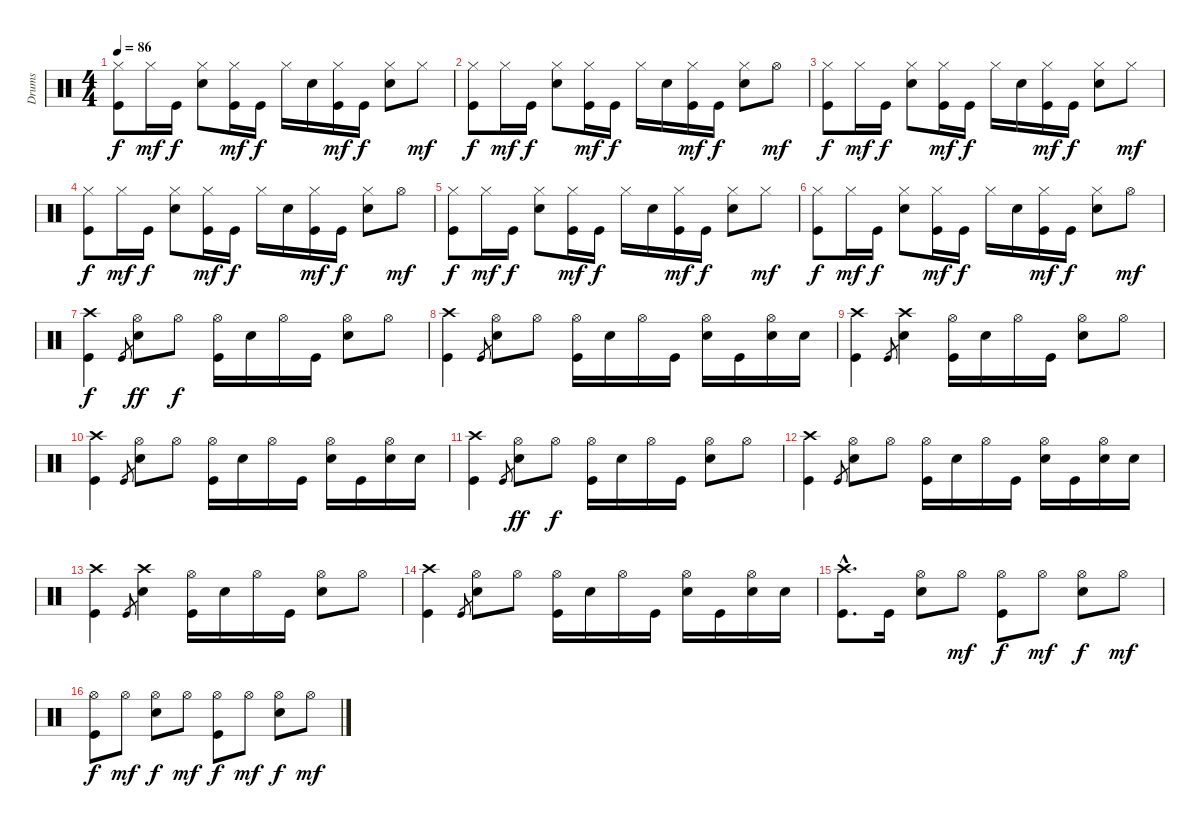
\track ("Drums" "Drums") {instrument percussion}
\staff {score}
\articulation defaults
\ts (4 4)
\tempo 86
\clef neutral
\ks c
("Hi-Hat (closed)" "Kick (hit)").8{dy f} "Hi-Hat (closed)".16{dy mf} "Kick (hit)".16{dy f} ("Hi-Hat (closed)" "Snare (hit) 2").8 ("Hi-Hat (closed)" "Kick (hit)").16{dy mf} "Kick (hit)".16{dy f} "Hi-Hat (closed)".16 "Snare (hit) 2".16 ("Hi-Hat (closed)" "Kick (hit)").16{dy mf} "Kick (hit)".16{dy f} ("Hi-Hat (closed)" "Snare (hit) 2").8 "Hi-Hat (closed)".8{dy mf} |
("Hi-Hat (closed)" "Kick (hit)").8{dy f} "Hi-Hat (closed)".16{dy mf} "Kick (hit)".16{dy f} ("Hi-Hat (closed)" "Snare (hit) 2").8 ("Hi-Hat (closed)" "Kick (hit)").16{dy mf} "Kick (hit)".16{dy f} "Hi-Hat (closed)".16 "Snare (hit) 2".16 ("Hi-Hat (closed)" "Kick (hit)").16{dy mf} "Kick (hit)".16{dy f} ("Hi-Hat (closed)" "Snare (hit) 2").8 "Hi-Hat (open)".8{dy mf} |
("Hi-Hat (closed)" "Kick (hit)").8{dy f} "Hi-Hat (closed)".16{dy mf} "Kick (hit)".16{dy f} ("Hi-Hat (closed)" "Snare (hit) 2").8 ("Hi-Hat (closed)" "Kick (hit)").16{dy mf} "Kick (hit)".16{dy f} "Hi-Hat (closed)".16 "Snare (hit) 2".16 ("Hi-Hat (closed)" "Kick (hit)").16{dy mf} "Kick (hit)".16{dy f} ("Hi-Hat (closed)" "Snare (hit) 2").8 "Hi-Hat (closed)".8{dy mf} |
("Hi-Hat (closed)" "Kick (hit)").8{dy f} "Hi-Hat (closed)".16{dy mf} "Kick (hit)".16{dy f} ("Hi-Hat (closed)" "Snare (hit) 2").8 ("Hi-Hat (closed)" "Kick (hit)").16{dy mf} "Kick (hit)".16{dy f} "Hi-Hat (closed)".16 "Snare (hit) 2".16 ("Hi-Hat (closed)" "Kick (hit)").16{dy mf} "Kick (hit)".16{dy f} ("Hi-Hat (closed)" "Snare (hit) 2").8 "Hi-Hat (open)".8{dy mf} |
("Hi-Hat (closed)" "Kick (hit)").8{dy f} "Hi-Hat (closed)".16{dy mf} "Kick (hit)".16{dy f} ("Hi-Hat (closed)" "Snare (hit) 2").8 ("Hi-Hat (closed)" "Kick (hit)").16{dy mf} "Kick (hit)".16{dy f} "Hi-Hat (closed)".16 "Snare (hit) 2".16 ("Hi-Hat (closed)" "Kick (hit)").16{dy mf} "Kick (hit)".16{dy f} ("Hi-Hat (closed)" "Snare (hit) 2").8 "Hi-Hat (closed)".8{dy mf} |
("Hi-Hat (closed)" "Kick (hit)").8{dy f} "Hi-Hat (closed)".16{dy mf} "Kick (hit)".16{dy f} ("Hi-Hat (closed)" "Snare (hit) 2").8 ("Hi-Hat (closed)" "Kick (hit)").16{dy mf} "Kick (hit)".16{dy f} "Hi-Hat (closed)".16 "Snare (hit) 2".16 ("Hi-Hat (closed)" "Kick (hit)").16{dy mf} "Kick (hit)".16{dy f} ("Hi-Hat (closed)" "Snare (hit) 2").8 "Hi-Hat (open)".8{dy mf} |
("Crash high (hit)" "Kick (hit)").4{dy f} "Kick (hit)".8{gr} ("Hi-Hat (open)" "Snare (hit) 2").8{dy ff} "Hi-Hat (open)".8{dy f} ("Hi-Hat (open)" "Kick (hit)").16 "Snare (hit) 2".16 "Hi-Hat (open)".16 "Kick (hit)".16 ("Hi-Hat (open)" "Snare (hit) 2").8 "Hi-Hat (open)".8 |
("Crash high (hit)" "Kick (hit)").4 "Kick (hit)".8{gr} ("Hi-Hat (open)" "Snare (hit) 2").8 "Hi-Hat (open)".8 ("Hi-Hat (open)" "Kick (hit)").16 "Snare (hit) 2".16 "Hi-Hat (open)".16 "Kick (hit)".16 ("Hi-Hat (open)" "Snare (hit) 2").16 "Kick (hit)".16 ("Hi-Hat (open)" "Snare (hit) 2").16 "Snare (hit) 2".16 |
("Crash high (hit)" "Kick (hit)").4 "Kick (hit)".8{gr} ("Crash high (hit)" "Snare (hit) 2").4 ("Hi-Hat (open)" "Kick (hit)").16 "Snare (hit) 2".16 "Hi-Hat (open)".16 "Kick (hit)".16 ("Hi-Hat (open)" "Snare (hit) 2").8 "Hi-Hat (open)".8 |
("Crash high (hit)" "Kick (hit)").4 "Kick (hit)".8{gr} ("Hi-Hat (open)" "Snare (hit) 2").8 "Hi-Hat (open)".8 ("Hi-Hat (open)" "Kick (hit)").16 "Snare (hit) 2".16 "Hi-Hat (open)".16 "Kick (hit)".16 ("Hi-Hat (open)" "Snare (hit) 2").16 "Kick (hit)".16 ("Hi-Hat (open)" "Snare (hit) 2").16 "Snare (hit) 2".16 |
("Crash high (hit)" "Kick (hit)").4 "Kick (hit)".8{gr} ("Hi-Hat (open)" "Snare (hit) 2").8{dy ff} "Hi-Hat (open)".8{dy f} ("Hi-Hat (open)" "Kick (hit)").16 "Snare (hit) 2".16 "Hi-Hat (open)".16 "Kick (hit)".16 ("Hi-Hat (open)" "Snare (hit) 2").8 "Hi-Hat (open)".8 |
("Crash high (hit)" "Kick (hit)").4 "Kick (hit)".8{gr} ("Hi-Hat (open)" "Snare (hit) 2").8 "Hi-Hat (open)".8 ("Hi-Hat (open)" "Kick (hit)").16 "Snare (hit) 2".16 "Hi-Hat (open)".16 "Kick (hit)".16 ("Hi-Hat (open)" "Snare (hit) 2").16 "Kick (hit)".16 ("Hi-Hat (open)" "Snare (hit) 2").16 "Snare (hit) 2".16 |
("Crash high (hit)" "Kick (hit)").4 "Kick (hit)".8{gr} ("Crash high (hit)" "Snare (hit) 2").4 ("Hi-Hat (open)" "Kick (hit)").16 "Snare (hit) 2".16 "Hi-Hat (open)".16 "Kick (hit)".16 ("Hi-Hat (open)" "Snare (hit) 2").8 "Hi-Hat (open)".8 |
("Crash high (hit)" "Kick (hit)").4 "Kick (hit)".8{gr} ("Hi-Hat (open)" "Snare (hit) 2").8 "Hi-Hat (open)".8 ("Hi-Hat (open)" "Kick (hit)").16 "Snare (hit) 2".16 "Hi-Hat (open)".16 "Kick (hit)".16 ("Hi-Hat (open)" "Snare (hit) 2").16 "Kick (hit)".16 ("Hi-Hat (open)" "Snare (hit) 2").16 "Snare (hit) 2".16 |
("Crash high (hit)"{hac} "Kick (hit)"{hac}).8{d} "Kick (hit)".16 ("Hi-Hat (open)" "Snare (hit) 2").8 "Hi-Hat (open)".8{dy mf} ("Hi-Hat (open)" "Kick (hit)").8{dy f} "Hi-Hat (open)".8{dy mf} ("Hi-Hat (open)" "Snare (hit) 2").8{dy f} "Hi-Hat (open)".8{dy mf} |
("Hi-Hat (open)" "Kick (hit)").8{dy f} "Hi-Hat (open)".8{dy mf} ("Hi-Hat (open)" "Snare (hit) 2").8{dy f} "Hi-Hat (open)".8{dy mf} ("Hi-Hat (open)" "Kick (hit)").8{dy f} "Hi-Hat (open)".8{dy mf} ("Hi-Hat (open)" "Snare (hit) 2").8{dy f} "Hi-Hat (open)".8{dy mf}
